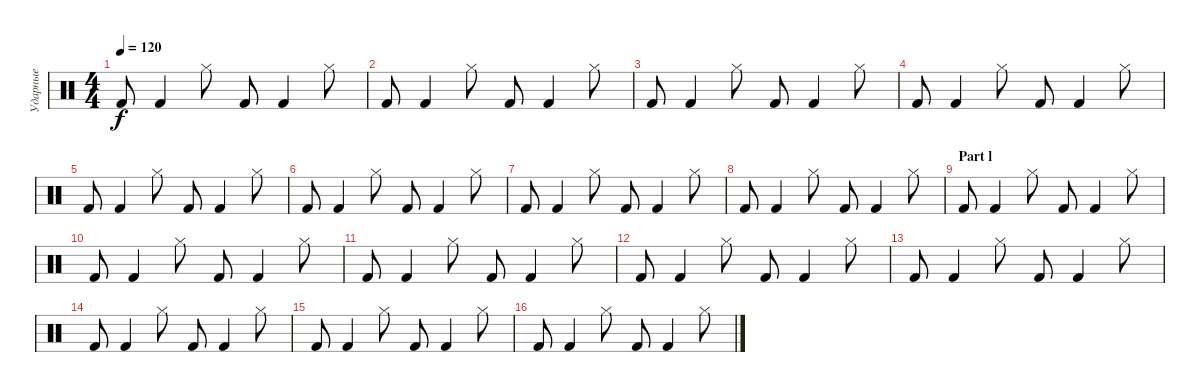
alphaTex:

\track ("Ударные" "Ударные") {instrument percussion}
\staff {score}
\articulation defaults
\ts (4 4)
\section ("" "")
\tempo 120
\clef neutral
\ks c "Kick (hit) 2".8{dy f} "Kick (hit) 2".4 "Hi-Hat (closed)".8 "Kick (hit) 2".8 "Kick (hit) 2".4 "Hi-Hat (closed)".8
|
"Kick (hit) 2".8 "Kick (hit) 2".4 "Hi-Hat (closed)".8 "Kick (hit) 2".8 "Kick (hit) 2".4 "Hi-Hat (closed)".8 |
"Kick (hit) 2".8 "Kick (hit) 2".4 "Hi-Hat (closed)".8 "Kick (hit) 2".8 "Kick (hit) 2".4 "Hi-Hat (closed)".8 |
"Kick (hit) 2".8 "Kick (hit) 2".4 "Hi-Hat (closed)".8 "Kick (hit) 2".8 "Kick (hit) 2".4 "Hi-Hat (closed)".8 |
"Kick (hit) 2".8 "Kick (hit) 2".4 "Hi-Hat (closed)".8 "Kick (hit) 2".8 "Kick (hit) 2".4 "Hi-Hat (closed)".8 |
"Kick (hit) 2".8 "Kick (hit) 2".4 "Hi-Hat (closed)".8 "Kick (hit) 2".8 "Kick (hit) 2".4 "Hi-Hat (closed)".8 |
"Kick (hit) 2".8 "Kick (hit) 2".4 "Hi-Hat (closed)".8 "Kick (hit) 2".8 "Kick (hit) 2".4 "Hi-Hat (closed)".8 |
"Kick (hit) 2".8 "Kick (hit) 2".4 "Hi-Hat (closed)".8 "Kick (hit) 2".8 "Kick (hit) 2".4 "Hi-Hat (closed)".8 |
\section ("" "Part l")
"Kick (hit) 2".8 "Kick (hit) 2".4 "Hi-Hat (closed)".8 "Kick (hit) 2".8 "Kick (hit) 2".4 "Hi-Hat (closed)".8 |
"Kick (hit) 2".8 "Kick (hit) 2".4 "Hi-Hat (closed)".8 "Kick (hit) 2".8 "Kick (hit) 2".4 "Hi-Hat (closed)".8 |
"Kick (hit) 2".8 "Kick (hit) 2".4 "Hi-Hat (closed)".8 "Kick (hit) 2".8 "Kick (hit) 2".4 "Hi-Hat (closed)".8 |
"Kick (hit) 2".8 "Kick (hit) 2".4 "Hi-Hat (closed)".8 "Kick (hit) 2".8 "Kick (hit) 2".4 "Hi-Hat (closed)".8 |
"Kick (hit) 2".8 "Kick (hit) 2".4 "Hi-Hat (closed)".8 "Kick (hit) 2".8 "Kick (hit) 2".4 "Hi-Hat (closed)".8 |
"Kick (hit) 2".8 "Kick (hit) 2".4 "Hi-Hat (closed)".8 "Kick (hit) 2".8 "Kick (hit) 2".4 "Hi-Hat (closed)".8 |
"Kick (hit) 2".8 "Kick (hit) 2".4 "Hi-Hat (closed)".8 "Kick (hit) 2".8 "Kick (hit) 2".4 "Hi-Hat (closed)".8 |
"Kick (hit) 2".8 "Kick (hit) 2".4 "Hi-Hat (closed)".8 "Kick (hit) 2".8 "Kick (hit) 2".4 "Hi-Hat (closed)".8
